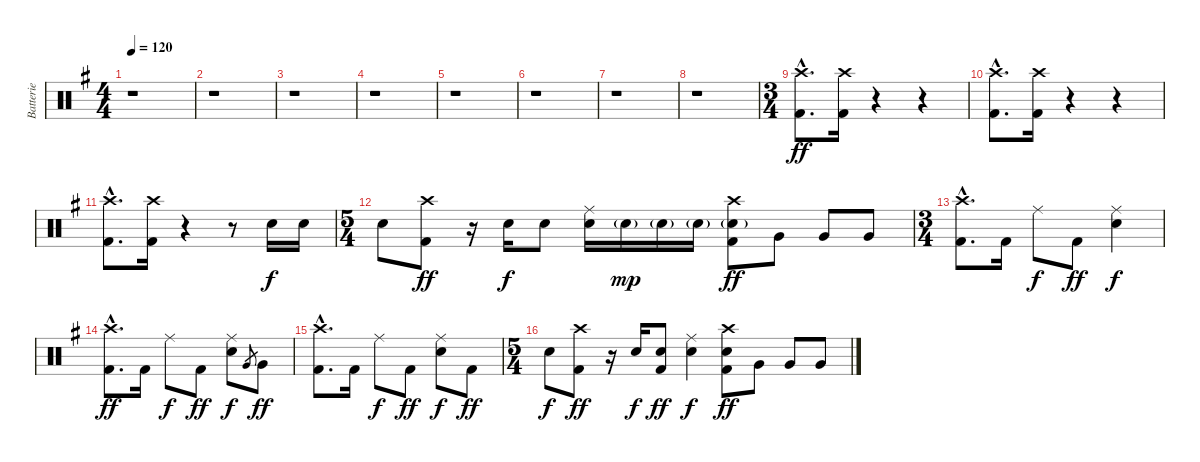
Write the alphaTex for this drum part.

\track ("Batterie" "Batterie") {instrument percussion}
\staff {score}
\articulation defaults
\ts (4 4)
\tempo 120
\clef neutral
\ks g
r.1{dy ff} |
r.1 |
r.1 |
r.1 |
r.1 |
r.1 |
r.1 |
r.1 |
\ts (3 4)
("Crash high (hit)"{hac} "Kick (hit) 2"{hac}).8{d} ("Crash high (hit)" "Kick (hit) 2").16 r.4 r.4 |
("Crash high (hit)"{hac} "Kick (hit) 2"{hac}).8{d} ("Crash high (hit)" "Kick (hit) 2").16 r.4 r.4 |
("Crash high (hit)"{hac} "Kick (hit) 2"{hac}).8{d} ("Crash high (hit)" "Kick (hit) 2").16 r.4 r.8 "Snare (hit) 2".16{dy f} "Snare (hit) 2".16 |
\ts (5 4)
"Snare (hit) 2".8 ("Crash high (hit)" "Kick (hit) 2").8{dy ff} r.16 "Snare (hit) 2".16{dy f} "Snare (hit) 2".8 ("Ride (middle)" "Snare (hit) 2").16 "Snare (hit) 2"{g}.16{dy mp} "Snare (hit) 2"{g}.16 "Snare (hit) 2"{g}.16 ("Crash high (hit)" "Snare (hit) 2"{g} "Kick (hit) 2").8{dy ff} "Very Low Tom (hit)".8 "Very Low Tom (hit)".8 "Very Low Tom (hit)".8 |
\ts (3 4)
("Crash high (hit)"{hac} "Kick (hit) 2"{hac}).8{d} "Kick (hit) 2".16 "Ride (middle)".8{dy f} "Kick (hit) 2".8{dy ff} ("Ride (middle)" "Snare (hit) 2").4{dy f} |
("Crash high (hit)"{hac} "Kick (hit) 2"{hac}).8{d dy ff} "Kick (hit) 2".16 "Ride (middle)".8{dy f} "Kick (hit) 2".8{dy ff} ("Ride (middle)" "Snare (hit) 2").8{dy f} "Very Low Tom (hit)".8{gr} "Very Low Tom (hit)".8{dy ff} |
("Crash high (hit)"{hac} "Kick (hit) 2"{hac}).8{d} "Kick (hit) 2".16 "Ride (middle)".8{dy f} "Kick (hit) 2".8{dy ff} ("Ride (middle)" "Snare (hit) 2").8{dy f} "Kick (hit) 2".8{dy ff} |
\ts (5 4)
"Snare (hit) 2".8{dy f} ("Crash high (hit)" "Kick (hit) 2").8{dy ff} r.16 "Snare (hit) 2".16{dy f} ("Snare (hit) 2" "Kick (hit) 2").8{dy ff} ("Ride (middle)" "Snare (hit) 2").4{dy f} ("Crash high (hit)" "Snare (hit) 2" "Kick (hit) 2").8{dy ff} "Very Low Tom (hit)".8 "Very Low Tom (hit)".8 "Very Low Tom (hit)".8
